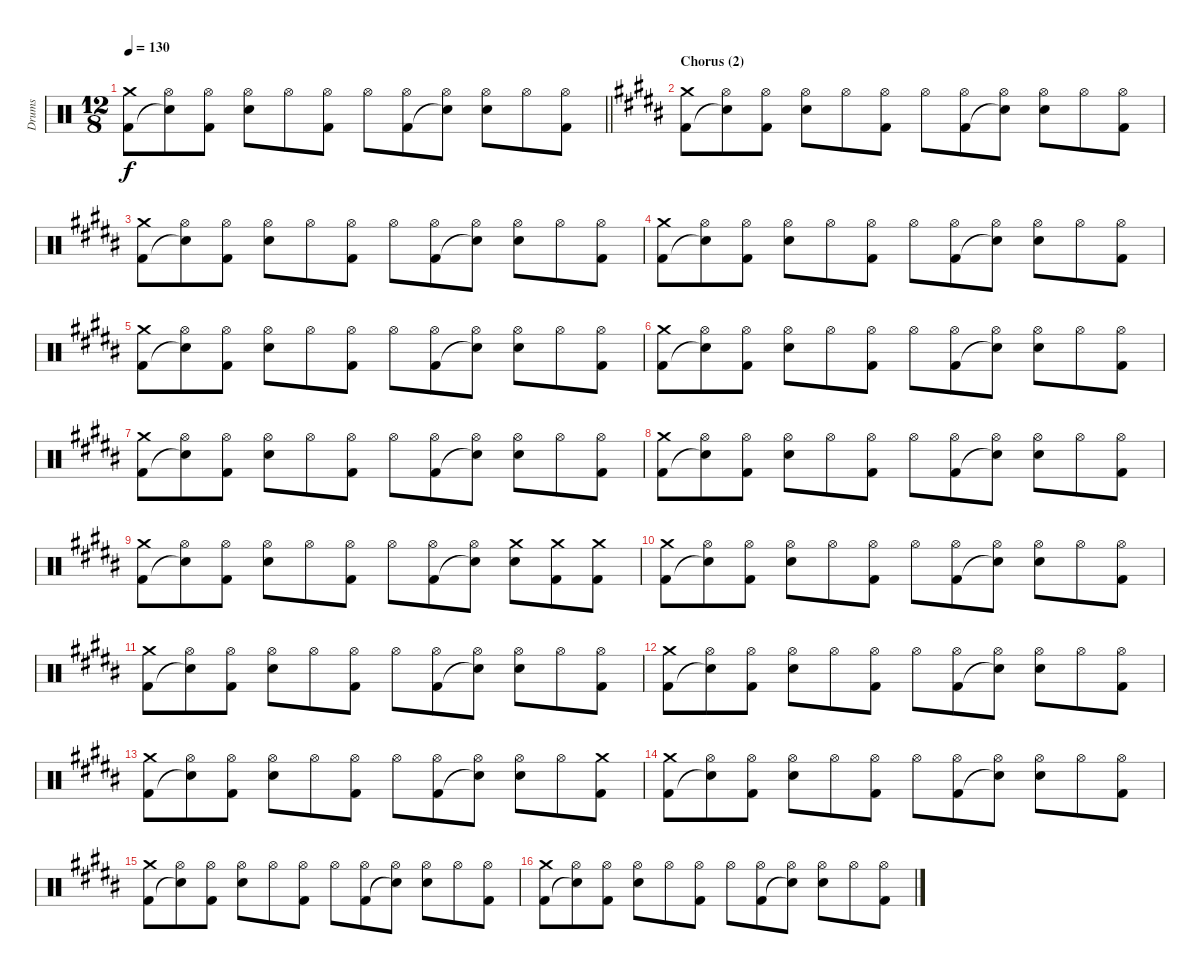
\track ("Drums" "Drums") {instrument percussion}
\staff {score}
\articulation defaults
\ts (12 8)
\tempo 130
\clef neutral
\barLineRight lightlight
\ks c
("Crash medium (hit)" "Kick (hit) 2").8{dy f} ("Hi-Hat (open)" "Snare (hit)"{t}).8 ("Hi-Hat (open)" "Kick (hit) 2").8 ("Hi-Hat (open)" "Electric Snare (hit)").8 "Hi-Hat (open)".8 ("Hi-Hat (open)" "Kick (hit) 2").8 "Hi-Hat (open)".8 ("Hi-Hat (open)" "Kick (hit) 2").8 ("Hi-Hat (open)" "Snare (hit)"{t}).8 ("Hi-Hat (open)" "Electric Snare (hit)").8 "Hi-Hat (open)".8 ("Hi-Hat (open)" "Kick (hit) 2").8 |
\section ("" "Chorus (2)")
\ks b
("Crash medium (hit)" "Kick (hit) 2").8 ("Hi-Hat (open)" "Snare (hit)"{t}).8 ("Hi-Hat (open)" "Kick (hit) 2").8 ("Hi-Hat (open)" "Electric Snare (hit)").8 "Hi-Hat (open)".8 ("Hi-Hat (open)" "Kick (hit) 2").8 "Hi-Hat (open)".8 ("Hi-Hat (open)" "Kick (hit) 2").8 ("Hi-Hat (open)" "Snare (hit)"{t}).8 ("Hi-Hat (open)" "Electric Snare (hit)").8 "Hi-Hat (open)".8 ("Hi-Hat (open)" "Kick (hit) 2").8 |
("Crash medium (hit)" "Kick (hit) 2").8 ("Hi-Hat (open)" "Snare (hit)"{t}).8 ("Hi-Hat (open)" "Kick (hit) 2").8 ("Hi-Hat (open)" "Electric Snare (hit)").8 "Hi-Hat (open)".8 ("Hi-Hat (open)" "Kick (hit) 2").8 "Hi-Hat (open)".8 ("Hi-Hat (open)" "Kick (hit) 2").8 ("Hi-Hat (open)" "Snare (hit)"{t}).8 ("Hi-Hat (open)" "Electric Snare (hit)").8 "Hi-Hat (open)".8 ("Hi-Hat (open)" "Kick (hit) 2").8 |
("Crash medium (hit)" "Kick (hit) 2").8 ("Hi-Hat (open)" "Snare (hit)"{t}).8 ("Hi-Hat (open)" "Kick (hit) 2").8 ("Hi-Hat (open)" "Electric Snare (hit)").8 "Hi-Hat (open)".8 ("Hi-Hat (open)" "Kick (hit) 2").8 "Hi-Hat (open)".8 ("Hi-Hat (open)" "Kick (hit) 2").8 ("Hi-Hat (open)" "Snare (hit)"{t}).8 ("Hi-Hat (open)" "Electric Snare (hit)").8 "Hi-Hat (open)".8 ("Hi-Hat (open)" "Kick (hit) 2").8 |
("Crash medium (hit)" "Kick (hit) 2").8 ("Hi-Hat (open)" "Snare (hit)"{t}).8 ("Hi-Hat (open)" "Kick (hit) 2").8 ("Hi-Hat (open)" "Electric Snare (hit)").8 "Hi-Hat (open)".8 ("Hi-Hat (open)" "Kick (hit) 2").8 "Hi-Hat (open)".8 ("Hi-Hat (open)" "Kick (hit) 2").8 ("Hi-Hat (open)" "Snare (hit)"{t}).8 ("Hi-Hat (open)" "Electric Snare (hit)").8 "Hi-Hat (open)".8 ("Hi-Hat (open)" "Kick (hit) 2").8 |
("Crash medium (hit)" "Kick (hit) 2").8 ("Hi-Hat (open)" "Snare (hit)"{t}).8 ("Hi-Hat (open)" "Kick (hit) 2").8 ("Hi-Hat (open)" "Electric Snare (hit)").8 "Hi-Hat (open)".8 ("Hi-Hat (open)" "Kick (hit) 2").8 "Hi-Hat (open)".8 ("Hi-Hat (open)" "Kick (hit) 2").8 ("Hi-Hat (open)" "Snare (hit)"{t}).8 ("Hi-Hat (open)" "Electric Snare (hit)").8 "Hi-Hat (open)".8 ("Hi-Hat (open)" "Kick (hit) 2").8 |
("Crash medium (hit)" "Kick (hit) 2").8 ("Hi-Hat (open)" "Snare (hit)"{t}).8 ("Hi-Hat (open)" "Kick (hit) 2").8 ("Hi-Hat (open)" "Electric Snare (hit)").8 "Hi-Hat (open)".8 ("Hi-Hat (open)" "Kick (hit) 2").8 "Hi-Hat (open)".8 ("Hi-Hat (open)" "Kick (hit) 2").8 ("Hi-Hat (open)" "Snare (hit)"{t}).8 ("Hi-Hat (open)" "Electric Snare (hit)").8 "Hi-Hat (open)".8 ("Hi-Hat (open)" "Kick (hit) 2").8 |
("Crash medium (hit)" "Kick (hit) 2").8 ("Hi-Hat (open)" "Snare (hit)"{t}).8 ("Hi-Hat (open)" "Kick (hit) 2").8 ("Hi-Hat (open)" "Electric Snare (hit)").8 "Hi-Hat (open)".8 ("Hi-Hat (open)" "Kick (hit) 2").8 "Hi-Hat (open)".8 ("Hi-Hat (open)" "Kick (hit) 2").8 ("Hi-Hat (open)" "Snare (hit)"{t}).8 ("Hi-Hat (open)" "Electric Snare (hit)").8 "Hi-Hat (open)".8 ("Hi-Hat (open)" "Kick (hit) 2").8 |
("Crash medium (hit)" "Kick (hit) 2").8 ("Hi-Hat (open)" "Snare (hit)"{t}).8 ("Hi-Hat (open)" "Kick (hit) 2").8 ("Hi-Hat (open)" "Electric Snare (hit)").8 "Hi-Hat (open)".8 ("Hi-Hat (open)" "Kick (hit) 2").8 "Hi-Hat (open)".8 ("Hi-Hat (open)" "Kick (hit) 2").8 ("Hi-Hat (open)" "Snare (hit)"{t}).8 ("Crash medium (hit)" "Electric Snare (hit)").8 ("Crash medium (hit)" "Kick (hit) 2").8 ("Crash medium (hit)" "Kick (hit) 2").8 |
("Crash medium (hit)" "Kick (hit) 2").8 ("Hi-Hat (open)" "Snare (hit)"{t}).8 ("Hi-Hat (open)" "Kick (hit) 2").8 ("Hi-Hat (open)" "Electric Snare (hit)").8 "Hi-Hat (open)".8 ("Hi-Hat (open)" "Kick (hit) 2").8 "Hi-Hat (open)".8 ("Hi-Hat (open)" "Kick (hit) 2").8 ("Hi-Hat (open)" "Snare (hit)"{t}).8 ("Hi-Hat (open)" "Electric Snare (hit)").8 "Hi-Hat (open)".8 ("Hi-Hat (open)" "Kick (hit) 2").8 |
("Crash medium (hit)" "Kick (hit) 2").8 ("Hi-Hat (open)" "Snare (hit)"{t}).8 ("Hi-Hat (open)" "Kick (hit) 2").8 ("Hi-Hat (open)" "Electric Snare (hit)").8 "Hi-Hat (open)".8 ("Hi-Hat (open)" "Kick (hit) 2").8 "Hi-Hat (open)".8 ("Hi-Hat (open)" "Kick (hit) 2").8 ("Hi-Hat (open)" "Snare (hit)"{t}).8 ("Hi-Hat (open)" "Electric Snare (hit)").8 "Hi-Hat (open)".8 ("Hi-Hat (open)" "Kick (hit) 2").8 |
("Crash medium (hit)" "Kick (hit) 2").8 ("Hi-Hat (open)" "Snare (hit)"{t}).8 ("Hi-Hat (open)" "Kick (hit) 2").8 ("Hi-Hat (open)" "Electric Snare (hit)").8 "Hi-Hat (open)".8 ("Hi-Hat (open)" "Kick (hit) 2").8 "Hi-Hat (open)".8 ("Hi-Hat (open)" "Kick (hit) 2").8 ("Hi-Hat (open)" "Snare (hit)"{t}).8 ("Hi-Hat (open)" "Electric Snare (hit)").8 "Hi-Hat (open)".8 ("Hi-Hat (open)" "Kick (hit) 2").8 |
("Crash medium (hit)" "Kick (hit) 2").8 ("Hi-Hat (open)" "Snare (hit)"{t}).8 ("Hi-Hat (open)" "Kick (hit) 2").8 ("Hi-Hat (open)" "Electric Snare (hit)").8 "Hi-Hat (open)".8 ("Hi-Hat (open)" "Kick (hit) 2").8 "Hi-Hat (open)".8 ("Hi-Hat (open)" "Kick (hit) 2").8 ("Hi-Hat (open)" "Snare (hit)"{t}).8 ("Hi-Hat (open)" "Electric Snare (hit)").8 "Hi-Hat (open)".8 ("Crash medium (hit)" "Kick (hit) 2").8 |
("Crash medium (hit)" "Kick (hit) 2").8 ("Hi-Hat (open)" "Snare (hit)"{t}).8 ("Hi-Hat (open)" "Kick (hit) 2").8 ("Hi-Hat (open)" "Electric Snare (hit)").8 "Hi-Hat (open)".8 ("Hi-Hat (open)" "Kick (hit) 2").8 "Hi-Hat (open)".8 ("Hi-Hat (open)" "Kick (hit) 2").8 ("Hi-Hat (open)" "Snare (hit)"{t}).8 ("Hi-Hat (open)" "Electric Snare (hit)").8 "Hi-Hat (open)".8 ("Hi-Hat (open)" "Kick (hit) 2").8 |
("Crash medium (hit)" "Kick (hit) 2").8 ("Hi-Hat (open)" "Snare (hit)"{t}).8 ("Hi-Hat (open)" "Kick (hit) 2").8 ("Hi-Hat (open)" "Electric Snare (hit)").8 "Hi-Hat (open)".8 ("Hi-Hat (open)" "Kick (hit) 2").8 "Hi-Hat (open)".8 ("Hi-Hat (open)" "Kick (hit) 2").8 ("Hi-Hat (open)" "Snare (hit)"{t}).8 ("Hi-Hat (open)" "Electric Snare (hit)").8 "Hi-Hat (open)".8 ("Hi-Hat (open)" "Kick (hit) 2").8 |
("Crash medium (hit)" "Kick (hit) 2").8 ("Hi-Hat (open)" "Snare (hit)"{t}).8 ("Hi-Hat (open)" "Kick (hit) 2").8 ("Hi-Hat (open)" "Electric Snare (hit)").8 "Hi-Hat (open)".8 ("Hi-Hat (open)" "Kick (hit) 2").8 "Hi-Hat (open)".8 ("Hi-Hat (open)" "Kick (hit) 2").8 ("Hi-Hat (open)" "Snare (hit)"{t}).8 ("Hi-Hat (open)" "Electric Snare (hit)").8 "Hi-Hat (open)".8 ("Hi-Hat (open)" "Kick (hit) 2").8
